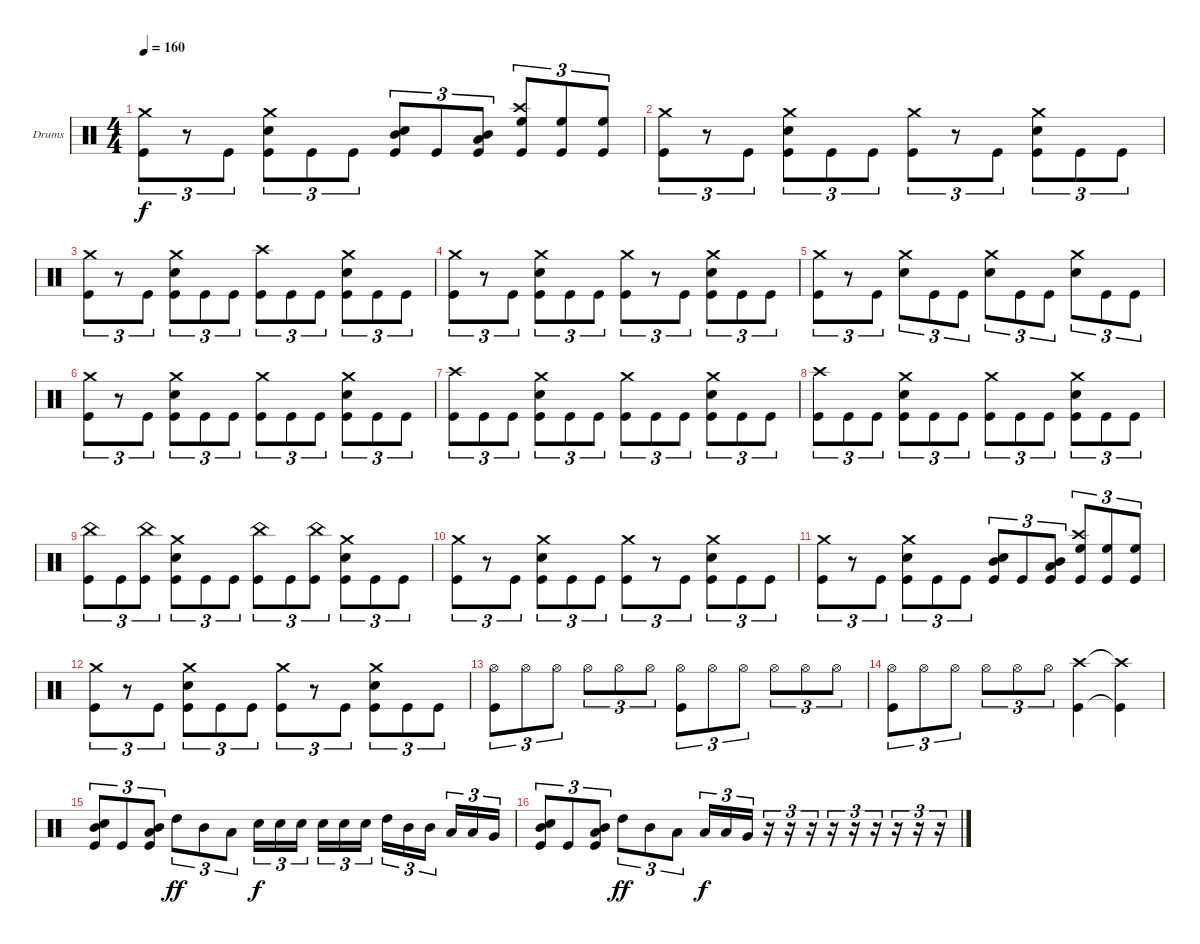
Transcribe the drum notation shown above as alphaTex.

\defaultSystemsLayout 4
\bracketExtendMode groupsimilarinstruments
\firstSystemTrackNameOrientation horizontal
\otherSystemsTrackNameOrientation horizontal
\track ("Drumkit" "Drums") {instrument percussion}
\staff {score}
\articulation defaults
\ts (4 4)
\tempo 160
\clef neutral
\ks c
("Crash medium (hit)" "Kick (hit)").8{tu (3 2) dy f} r.8{tu (3 2)} "Kick (hit)".8{tu (3 2)} ("Crash medium (hit)" "Snare (hit) 2" "Kick (hit)").8{tu (3 2)} "Kick (hit)".8{tu (3 2)} "Kick (hit)".8{tu (3 2)} ("Mid Tom (hit)" "Snare (hit) 2" "Kick (hit)").8{tu (3 2)} "Kick (hit)".8{tu (3 2)} ("Mid Tom (hit)" "Low Tom (hit)" "Kick (hit)").8{tu (3 2)} ("Crash high (hit)" "Kick (hit)" "High Floor Tom (hit)").8{tu (3 2)} ("Kick (hit)" "High Floor Tom (hit)").8{tu (3 2)} ("Kick (hit)" "High Floor Tom (hit)").8{tu (3 2)} |
("Crash medium (hit)" "Kick (hit)").8{tu (3 2)} r.8{tu (3 2)} "Kick (hit)".8{tu (3 2)} ("Crash medium (hit)" "Snare (hit) 2" "Kick (hit)").8{tu (3 2)} "Kick (hit)".8{tu (3 2)} "Kick (hit)".8{tu (3 2)} ("Crash medium (hit)" "Kick (hit)").8{tu (3 2)} r.8{tu (3 2)} "Kick (hit)".8{tu (3 2)} ("Crash medium (hit)" "Snare (hit) 2" "Kick (hit)").8{tu (3 2)} "Kick (hit)".8{tu (3 2)} "Kick (hit)".8{tu (3 2)} |
("Crash medium (hit)" "Kick (hit)").8{tu (3 2)} r.8{tu (3 2)} "Kick (hit)".8{tu (3 2)} ("Crash medium (hit)" "Snare (hit) 2" "Kick (hit)").8{tu (3 2)} "Kick (hit)".8{tu (3 2)} "Kick (hit)".8{tu (3 2)} ("Crash high (hit)" "Kick (hit)").8{tu (3 2)} "Kick (hit)".8{tu (3 2)} "Kick (hit)".8{tu (3 2)} ("Crash medium (hit)" "Snare (hit) 2" "Kick (hit)").8{tu (3 2)} "Kick (hit)".8{tu (3 2)} "Kick (hit)".8{tu (3 2)} |
("Crash medium (hit)" "Kick (hit)").8{tu (3 2)} r.8{tu (3 2)} "Kick (hit)".8{tu (3 2)} ("Crash medium (hit)" "Snare (hit) 2" "Kick (hit)").8{tu (3 2)} "Kick (hit)".8{tu (3 2)} "Kick (hit)".8{tu (3 2)} ("Crash medium (hit)" "Kick (hit)").8{tu (3 2)} r.8{tu (3 2)} "Kick (hit)".8{tu (3 2)} ("Crash medium (hit)" "Snare (hit) 2" "Kick (hit)").8{tu (3 2)} "Kick (hit)".8{tu (3 2)} "Kick (hit)".8{tu (3 2)} |
("Crash medium (hit)" "Kick (hit)").8{tu (3 2)} r.8{tu (3 2)} "Kick (hit)".8{tu (3 2)} ("Crash medium (hit)" "Snare (hit) 2").8{tu (3 2)} "Kick (hit)".8{tu (3 2)} "Kick (hit)".8{tu (3 2)} ("Crash medium (hit)" "Snare (hit) 2").8{tu (3 2)} "Kick (hit)".8{tu (3 2)} "Kick (hit)".8{tu (3 2)} ("Crash medium (hit)" "Snare (hit) 2").8{tu (3 2)} "Kick (hit)".8{tu (3 2)} "Kick (hit)".8{tu (3 2)} |
("Crash medium (hit)" "Kick (hit)").8{tu (3 2)} r.8{tu (3 2)} "Kick (hit)".8{tu (3 2)} ("Crash medium (hit)" "Snare (hit) 2" "Kick (hit)").8{tu (3 2)} "Kick (hit)".8{tu (3 2)} "Kick (hit)".8{tu (3 2)} ("Crash medium (hit)" "Kick (hit)").8{tu (3 2)} "Kick (hit)".8{tu (3 2)} "Kick (hit)".8{tu (3 2)} ("Crash medium (hit)" "Snare (hit) 2" "Kick (hit)").8{tu (3 2)} "Kick (hit)".8{tu (3 2)} "Kick (hit)".8{tu (3 2)} |
("Crash high (hit)" "Kick (hit)").8{tu (3 2)} "Kick (hit)".8{tu (3 2)} "Kick (hit)".8{tu (3 2)} ("Crash medium (hit)" "Snare (hit) 2" "Kick (hit)").8{tu (3 2)} "Kick (hit)".8{tu (3 2)} "Kick (hit)".8{tu (3 2)} ("Crash medium (hit)" "Kick (hit)").8{tu (3 2)} "Kick (hit)".8{tu (3 2)} "Kick (hit)".8{tu (3 2)} ("Crash medium (hit)" "Snare (hit) 2" "Kick (hit)").8{tu (3 2)} "Kick (hit)".8{tu (3 2)} "Kick (hit)".8{tu (3 2)} |
("Crash high (hit)" "Kick (hit)").8{tu (3 2)} "Kick (hit)".8{tu (3 2)} "Kick (hit)".8{tu (3 2)} ("Crash medium (hit)" "Snare (hit) 2" "Kick (hit)").8{tu (3 2)} "Kick (hit)".8{tu (3 2)} "Kick (hit)".8{tu (3 2)} ("Crash medium (hit)" "Kick (hit)").8{tu (3 2)} "Kick (hit)".8{tu (3 2)} "Kick (hit)".8{tu (3 2)} ("Crash medium (hit)" "Snare (hit) 2" "Kick (hit)").8{tu (3 2)} "Kick (hit)".8{tu (3 2)} "Kick (hit)".8{tu (3 2)} |
("Kick (hit)" "China (hit)").8{tu (3 2)} "Kick (hit)".8{tu (3 2)} ("Kick (hit)" "China (hit)").8{tu (3 2)} ("Crash medium (hit)" "Snare (hit) 2" "Kick (hit)").8{tu (3 2)} "Kick (hit)".8{tu (3 2)} "Kick (hit)".8{tu (3 2)} ("Kick (hit)" "China (hit)").8{tu (3 2)} "Kick (hit)".8{tu (3 2)} ("Kick (hit)" "China (hit)").8{tu (3 2)} ("Crash medium (hit)" "Snare (hit) 2" "Kick (hit)").8{tu (3 2)} "Kick (hit)".8{tu (3 2)} "Kick (hit)".8{tu (3 2)} |
("Crash medium (hit)" "Kick (hit)").8{tu (3 2)} r.8{tu (3 2)} "Kick (hit)".8{tu (3 2)} ("Crash medium (hit)" "Snare (hit) 2" "Kick (hit)").8{tu (3 2)} "Kick (hit)".8{tu (3 2)} "Kick (hit)".8{tu (3 2)} ("Crash medium (hit)" "Kick (hit)").8{tu (3 2)} r.8{tu (3 2)} "Kick (hit)".8{tu (3 2)} ("Crash medium (hit)" "Snare (hit) 2" "Kick (hit)").8{tu (3 2)} "Kick (hit)".8{tu (3 2)} "Kick (hit)".8{tu (3 2)} |
("Crash medium (hit)" "Kick (hit)").8{tu (3 2)} r.8{tu (3 2)} "Kick (hit)".8{tu (3 2)} ("Crash medium (hit)" "Snare (hit) 2" "Kick (hit)").8{tu (3 2)} "Kick (hit)".8{tu (3 2)} "Kick (hit)".8{tu (3 2)} ("Mid Tom (hit)" "Snare (hit) 2" "Kick (hit)").8{tu (3 2)} "Kick (hit)".8{tu (3 2)} ("Mid Tom (hit)" "Low Tom (hit)" "Kick (hit)").8{tu (3 2)} ("Crash high (hit)" "Kick (hit)" "High Floor Tom (hit)").8{tu (3 2)} ("Kick (hit)" "High Floor Tom (hit)").8{tu (3 2)} ("Kick (hit)" "High Floor Tom (hit)").8{tu (3 2)} |
("Crash medium (hit)" "Kick (hit)").8{tu (3 2)} r.8{tu (3 2)} "Kick (hit)".8{tu (3 2)} ("Crash medium (hit)" "Snare (hit) 2" "Kick (hit)").8{tu (3 2)} "Kick (hit)".8{tu (3 2)} "Kick (hit)".8{tu (3 2)} ("Crash medium (hit)" "Kick (hit)").8{tu (3 2)} r.8{tu (3 2)} "Kick (hit)".8{tu (3 2)} ("Crash medium (hit)" "Snare (hit) 2" "Kick (hit)").8{tu (3 2)} "Kick (hit)".8{tu (3 2)} "Kick (hit)".8{tu (3 2)} |
("Kick (hit)" "Hi-Hat (open)").8{tu (3 2)} "Hi-Hat (open)".8{tu (3 2)} "Hi-Hat (open)".8{tu (3 2)} "Hi-Hat (open)".8{tu (3 2)} "Hi-Hat (open)".8{tu (3 2)} "Hi-Hat (open)".8{tu (3 2)} ("Kick (hit)" "Hi-Hat (open)").8{tu (3 2)} "Hi-Hat (open)".8{tu (3 2)} "Hi-Hat (open)".8{tu (3 2)} "Hi-Hat (open)".8{tu (3 2)} "Hi-Hat (open)".8{tu (3 2)} "Hi-Hat (open)".8{tu (3 2)} |
("Kick (hit)" "Hi-Hat (open)").8{tu (3 2)} "Hi-Hat (open)".8{tu (3 2)} "Hi-Hat (open)".8{tu (3 2)} "Hi-Hat (open)".8{tu (3 2)} "Hi-Hat (open)".8{tu (3 2)} "Hi-Hat (open)".8{tu (3 2)} ("Crash high (hit)" "Kick (hit)").4 ("Crash high (hit)"{t} "Kick (hit)"{t}).4 |
("Mid Tom (hit)" "Snare (hit) 2" "Kick (hit)").8{tu (3 2)} "Kick (hit)".8{tu (3 2)} ("Mid Tom (hit)" "Low Tom (hit)" "Kick (hit)").8{tu (3 2)} "High Tom (hit)".8{tu (3 2) dy ff} "Mid Tom (hit)".8{tu (3 2)} "Low Tom (hit)".8{tu (3 2)} "Snare (hit) 2".16{tu (3 2) dy f} "Snare (hit) 2".16{tu (3 2)} "Snare (hit) 2".16{tu (3 2)} "Snare (hit) 2".16{tu (3 2)} "Snare (hit) 2".16{tu (3 2)} "Snare (hit) 2".16{tu (3 2)} "High Tom (hit)".16{tu (3 2)} "Mid Tom (hit)".16{tu (3 2)} "Mid Tom (hit)".16{tu (3 2)} "Low Tom (hit)".16{tu (3 2)} "Low Tom (hit)".16{tu (3 2)} "Very Low Tom (hit)".16{tu (3 2)} |
("Mid Tom (hit)" "Snare (hit) 2" "Kick (hit)").8{tu (3 2)} "Kick (hit)".8{tu (3 2)} ("Mid Tom (hit)" "Low Tom (hit)" "Kick (hit)").8{tu (3 2)} "High Tom (hit)".8{tu (3 2) dy ff} "Mid Tom (hit)".8{tu (3 2)} "Low Tom (hit)".8{tu (3 2)} "Low Tom (hit)".16{tu (3 2) dy f} "Low Tom (hit)".16{tu (3 2)} "Very Low Tom (hit)".16{tu (3 2)} r.16{tu (3 2)} r.16{tu (3 2)} r.16{tu (3 2)} r.16{tu (3 2)} r.16{tu (3 2)} r.16{tu (3 2)} r.16{tu (3 2)} r.16{tu (3 2)} r.16{tu (3 2)}
